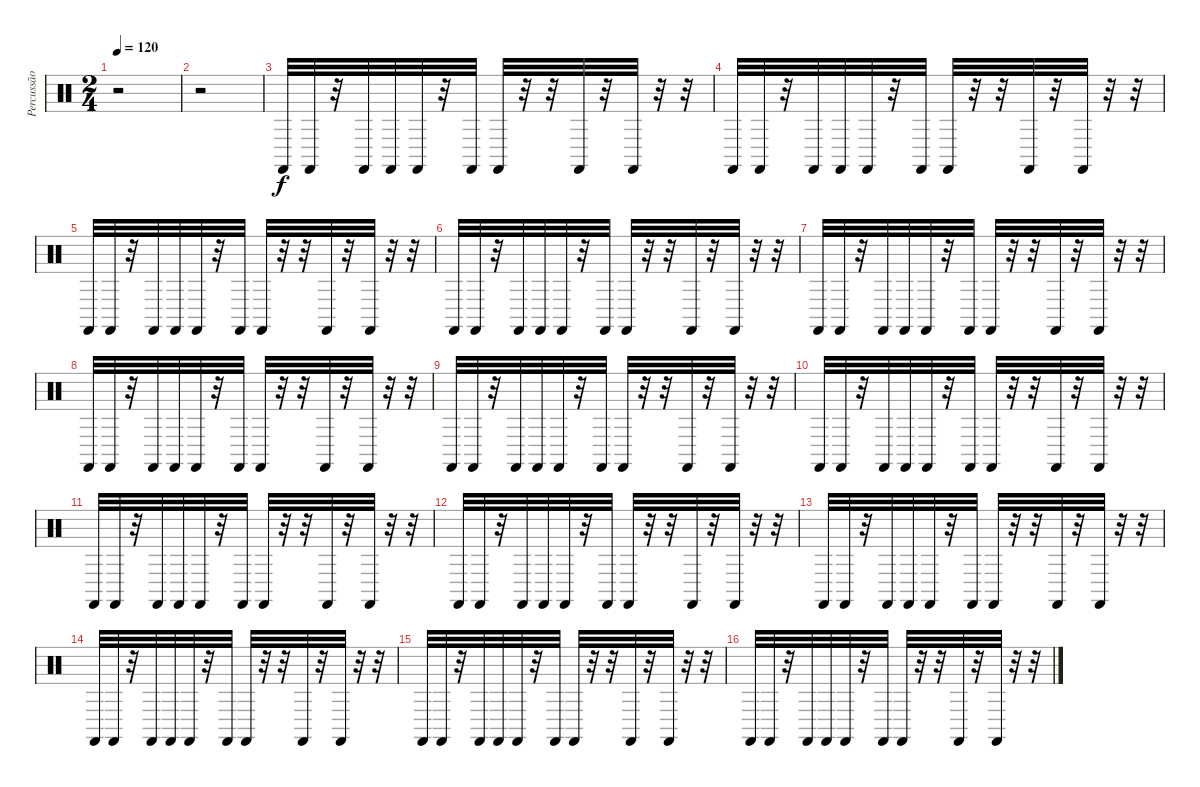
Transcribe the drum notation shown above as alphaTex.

\track ("Percussão" "Percussão") {instrument percussion}
\staff {score}
\articulation defaults
\ts (2 4)
\tempo 120
\clef neutral
\ks c
r.2{dy f} |
r.2 |
"Castanets (hit)".32 "Castanets (hit)".32 r.32 "Castanets (hit)".32 "Castanets (hit)".32 "Castanets (hit)".32 r.32 "Castanets (hit)".32 "Castanets (hit)".32 r.32 r.32 "Castanets (hit)".32 r.32 "Castanets (hit)".32 r.32 r.32 |
"Castanets (hit)".32 "Castanets (hit)".32 r.32 "Castanets (hit)".32 "Castanets (hit)".32 "Castanets (hit)".32 r.32 "Castanets (hit)".32 "Castanets (hit)".32 r.32 r.32 "Castanets (hit)".32 r.32 "Castanets (hit)".32 r.32 r.32 |
"Castanets (hit)".32 "Castanets (hit)".32 r.32 "Castanets (hit)".32 "Castanets (hit)".32 "Castanets (hit)".32 r.32 "Castanets (hit)".32 "Castanets (hit)".32 r.32 r.32 "Castanets (hit)".32 r.32 "Castanets (hit)".32 r.32 r.32 |
"Castanets (hit)".32 "Castanets (hit)".32 r.32 "Castanets (hit)".32 "Castanets (hit)".32 "Castanets (hit)".32 r.32 "Castanets (hit)".32 "Castanets (hit)".32 r.32 r.32 "Castanets (hit)".32 r.32 "Castanets (hit)".32 r.32 r.32 |
"Castanets (hit)".32 "Castanets (hit)".32 r.32 "Castanets (hit)".32 "Castanets (hit)".32 "Castanets (hit)".32 r.32 "Castanets (hit)".32 "Castanets (hit)".32 r.32 r.32 "Castanets (hit)".32 r.32 "Castanets (hit)".32 r.32 r.32 |
"Castanets (hit)".32 "Castanets (hit)".32 r.32 "Castanets (hit)".32 "Castanets (hit)".32 "Castanets (hit)".32 r.32 "Castanets (hit)".32 "Castanets (hit)".32 r.32 r.32 "Castanets (hit)".32 r.32 "Castanets (hit)".32 r.32 r.32 |
"Castanets (hit)".32 "Castanets (hit)".32 r.32 "Castanets (hit)".32 "Castanets (hit)".32 "Castanets (hit)".32 r.32 "Castanets (hit)".32 "Castanets (hit)".32 r.32 r.32 "Castanets (hit)".32 r.32 "Castanets (hit)".32 r.32 r.32 |
"Castanets (hit)".32 "Castanets (hit)".32 r.32 "Castanets (hit)".32 "Castanets (hit)".32 "Castanets (hit)".32 r.32 "Castanets (hit)".32 "Castanets (hit)".32 r.32 r.32 "Castanets (hit)".32 r.32 "Castanets (hit)".32 r.32 r.32 |
"Castanets (hit)".32 "Castanets (hit)".32 r.32 "Castanets (hit)".32 "Castanets (hit)".32 "Castanets (hit)".32 r.32 "Castanets (hit)".32 "Castanets (hit)".32 r.32 r.32 "Castanets (hit)".32 r.32 "Castanets (hit)".32 r.32 r.32 |
"Castanets (hit)".32 "Castanets (hit)".32 r.32 "Castanets (hit)".32 "Castanets (hit)".32 "Castanets (hit)".32 r.32 "Castanets (hit)".32 "Castanets (hit)".32 r.32 r.32 "Castanets (hit)".32 r.32 "Castanets (hit)".32 r.32 r.32 |
"Castanets (hit)".32 "Castanets (hit)".32 r.32 "Castanets (hit)".32 "Castanets (hit)".32 "Castanets (hit)".32 r.32 "Castanets (hit)".32 "Castanets (hit)".32 r.32 r.32 "Castanets (hit)".32 r.32 "Castanets (hit)".32 r.32 r.32 |
"Castanets (hit)".32 "Castanets (hit)".32 r.32 "Castanets (hit)".32 "Castanets (hit)".32 "Castanets (hit)".32 r.32 "Castanets (hit)".32 "Castanets (hit)".32 r.32 r.32 "Castanets (hit)".32 r.32 "Castanets (hit)".32 r.32 r.32 |
"Castanets (hit)".32 "Castanets (hit)".32 r.32 "Castanets (hit)".32 "Castanets (hit)".32 "Castanets (hit)".32 r.32 "Castanets (hit)".32 "Castanets (hit)".32 r.32 r.32 "Castanets (hit)".32 r.32 "Castanets (hit)".32 r.32 r.32 |
"Castanets (hit)".32 "Castanets (hit)".32 r.32 "Castanets (hit)".32 "Castanets (hit)".32 "Castanets (hit)".32 r.32 "Castanets (hit)".32 "Castanets (hit)".32 r.32 r.32 "Castanets (hit)".32 r.32 "Castanets (hit)".32 r.32 r.32
